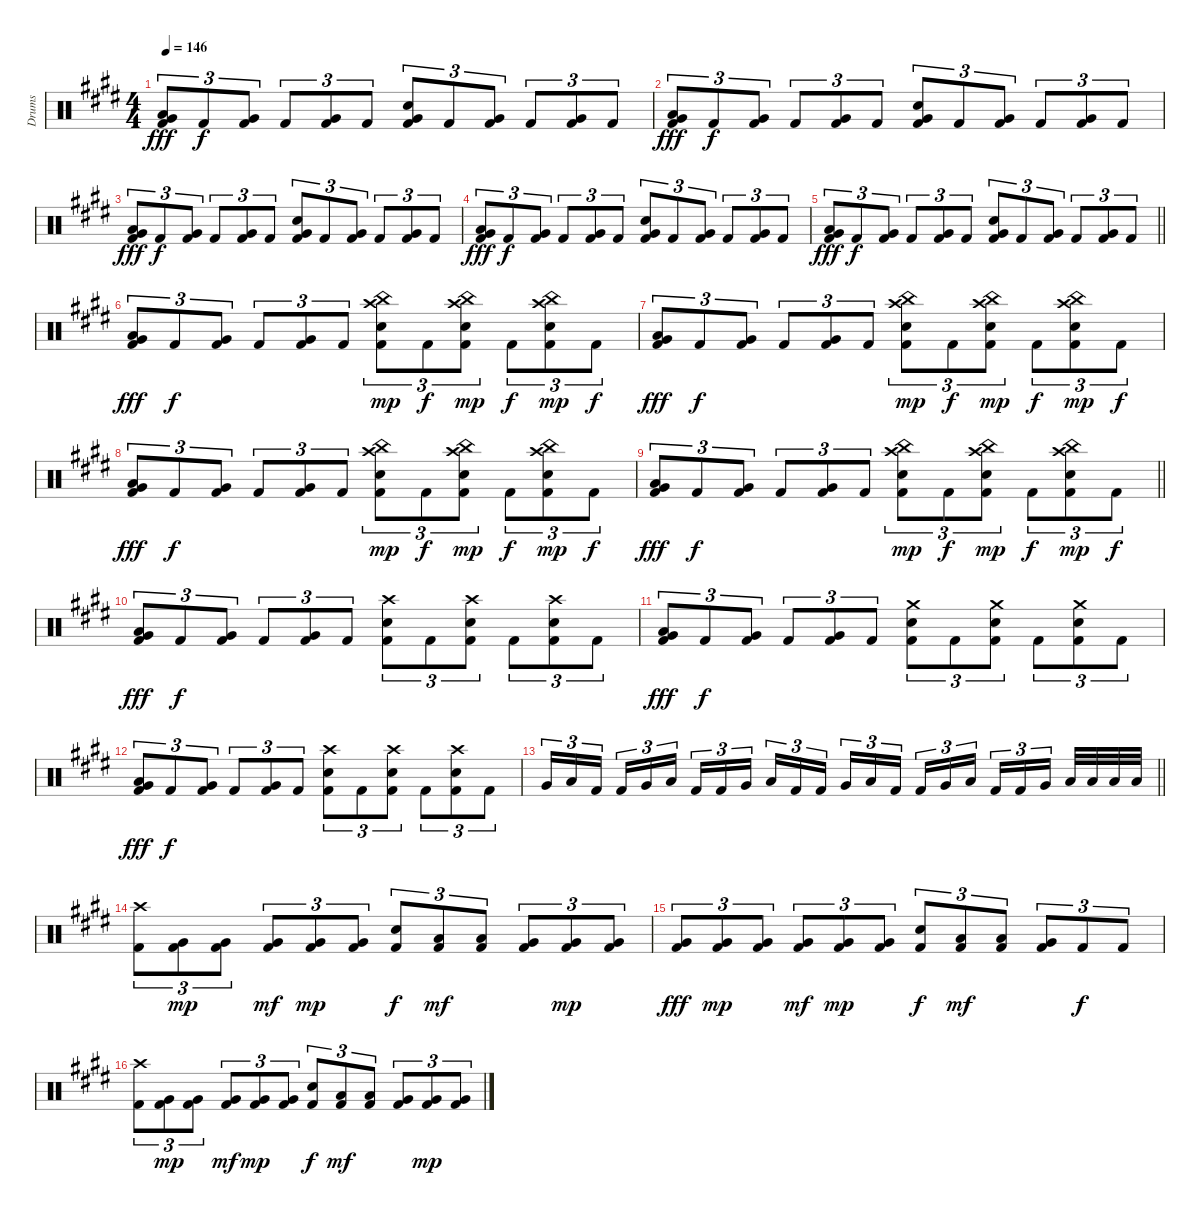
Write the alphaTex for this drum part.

\track ("Drums" "Drums") {instrument percussion}
\staff {score}
\articulation defaults
\ts (4 4)
\tempo 146
\clef neutral
\ks c#minor
("Low Tom (hit)" "Very Low Tom (hit)" "Kick (hit) 2").8{tu (3 2) dy fff} "Kick (hit) 2".8{tu (3 2) dy f} ("Very Low Tom (hit)" "Kick (hit) 2").8{tu (3 2)} "Kick (hit) 2".8{tu (3 2)} ("Very Low Tom (hit)" "Kick (hit) 2").8{tu (3 2)} "Kick (hit) 2".8{tu (3 2)} ("Snare (hit) 2" "Very Low Tom (hit)" "Kick (hit) 2").8{tu (3 2)} "Kick (hit) 2".8{tu (3 2)} ("Very Low Tom (hit)" "Kick (hit) 2").8{tu (3 2)} "Kick (hit) 2".8{tu (3 2)} ("Very Low Tom (hit)" "Kick (hit) 2").8{tu (3 2)} "Kick (hit) 2".8{tu (3 2)} |
("Low Tom (hit)" "Very Low Tom (hit)" "Kick (hit) 2").8{tu (3 2) dy fff} "Kick (hit) 2".8{tu (3 2) dy f} ("Very Low Tom (hit)" "Kick (hit) 2").8{tu (3 2)} "Kick (hit) 2".8{tu (3 2)} ("Very Low Tom (hit)" "Kick (hit) 2").8{tu (3 2)} "Kick (hit) 2".8{tu (3 2)} ("Snare (hit) 2" "Very Low Tom (hit)" "Kick (hit) 2").8{tu (3 2)} "Kick (hit) 2".8{tu (3 2)} ("Very Low Tom (hit)" "Kick (hit) 2").8{tu (3 2)} "Kick (hit) 2".8{tu (3 2)} ("Very Low Tom (hit)" "Kick (hit) 2").8{tu (3 2)} "Kick (hit) 2".8{tu (3 2)} |
("Low Tom (hit)" "Very Low Tom (hit)" "Kick (hit) 2").8{tu (3 2) dy fff} "Kick (hit) 2".8{tu (3 2) dy f} ("Very Low Tom (hit)" "Kick (hit) 2").8{tu (3 2)} "Kick (hit) 2".8{tu (3 2)} ("Very Low Tom (hit)" "Kick (hit) 2").8{tu (3 2)} "Kick (hit) 2".8{tu (3 2)} ("Snare (hit) 2" "Very Low Tom (hit)" "Kick (hit) 2").8{tu (3 2)} "Kick (hit) 2".8{tu (3 2)} ("Very Low Tom (hit)" "Kick (hit) 2").8{tu (3 2)} "Kick (hit) 2".8{tu (3 2)} ("Very Low Tom (hit)" "Kick (hit) 2").8{tu (3 2)} "Kick (hit) 2".8{tu (3 2)} |
("Low Tom (hit)" "Very Low Tom (hit)" "Kick (hit) 2").8{tu (3 2) dy fff} "Kick (hit) 2".8{tu (3 2) dy f} ("Very Low Tom (hit)" "Kick (hit) 2").8{tu (3 2)} "Kick (hit) 2".8{tu (3 2)} ("Very Low Tom (hit)" "Kick (hit) 2").8{tu (3 2)} "Kick (hit) 2".8{tu (3 2)} ("Snare (hit) 2" "Very Low Tom (hit)" "Kick (hit) 2").8{tu (3 2)} "Kick (hit) 2".8{tu (3 2)} ("Very Low Tom (hit)" "Kick (hit) 2").8{tu (3 2)} "Kick (hit) 2".8{tu (3 2)} ("Very Low Tom (hit)" "Kick (hit) 2").8{tu (3 2)} "Kick (hit) 2".8{tu (3 2)} |
\barLineRight lightlight
("Low Tom (hit)" "Very Low Tom (hit)" "Kick (hit) 2").8{tu (3 2) dy fff} "Kick (hit) 2".8{tu (3 2) dy f} ("Very Low Tom (hit)" "Kick (hit) 2").8{tu (3 2)} "Kick (hit) 2".8{tu (3 2)} ("Very Low Tom (hit)" "Kick (hit) 2").8{tu (3 2)} "Kick (hit) 2".8{tu (3 2)} ("Snare (hit) 2" "Very Low Tom (hit)" "Kick (hit) 2").8{tu (3 2)} "Kick (hit) 2".8{tu (3 2)} ("Very Low Tom (hit)" "Kick (hit) 2").8{tu (3 2)} "Kick (hit) 2".8{tu (3 2)} ("Very Low Tom (hit)" "Kick (hit) 2").8{tu (3 2)} "Kick (hit) 2".8{tu (3 2)} |
("Low Tom (hit)" "Very Low Tom (hit)" "Kick (hit) 2").8{tu (3 2) dy fff} "Kick (hit) 2".8{tu (3 2) dy f} ("Very Low Tom (hit)" "Kick (hit) 2").8{tu (3 2)} "Kick (hit) 2".8{tu (3 2)} ("Very Low Tom (hit)" "Kick (hit) 2").8{tu (3 2)} "Kick (hit) 2".8{tu (3 2)} ("China (hit)" "Crash high (hit)" "Snare (hit) 2" "Kick (hit) 2").8{tu (3 2) dy mp} "Kick (hit) 2".8{tu (3 2) dy f} ("China (hit)" "Crash high (hit)" "Snare (hit) 2" "Kick (hit) 2").8{tu (3 2) dy mp} "Kick (hit) 2".8{tu (3 2) dy f} ("China (hit)" "Crash high (hit)" "Snare (hit) 2" "Kick (hit) 2").8{tu (3 2) dy mp} "Kick (hit) 2".8{tu (3 2) dy f} |
("Low Tom (hit)" "Very Low Tom (hit)" "Kick (hit) 2").8{tu (3 2) dy fff} "Kick (hit) 2".8{tu (3 2) dy f} ("Very Low Tom (hit)" "Kick (hit) 2").8{tu (3 2)} "Kick (hit) 2".8{tu (3 2)} ("Very Low Tom (hit)" "Kick (hit) 2").8{tu (3 2)} "Kick (hit) 2".8{tu (3 2)} ("China (hit)" "Crash high (hit)" "Snare (hit) 2" "Kick (hit) 2").8{tu (3 2) dy mp} "Kick (hit) 2".8{tu (3 2) dy f} ("China (hit)" "Crash high (hit)" "Snare (hit) 2" "Kick (hit) 2").8{tu (3 2) dy mp} "Kick (hit) 2".8{tu (3 2) dy f} ("China (hit)" "Crash high (hit)" "Snare (hit) 2" "Kick (hit) 2").8{tu (3 2) dy mp} "Kick (hit) 2".8{tu (3 2) dy f} |
("Low Tom (hit)" "Very Low Tom (hit)" "Kick (hit) 2").8{tu (3 2) dy fff} "Kick (hit) 2".8{tu (3 2) dy f} ("Very Low Tom (hit)" "Kick (hit) 2").8{tu (3 2)} "Kick (hit) 2".8{tu (3 2)} ("Very Low Tom (hit)" "Kick (hit) 2").8{tu (3 2)} "Kick (hit) 2".8{tu (3 2)} ("China (hit)" "Crash high (hit)" "Snare (hit) 2" "Kick (hit) 2").8{tu (3 2) dy mp} "Kick (hit) 2".8{tu (3 2) dy f} ("China (hit)" "Crash high (hit)" "Snare (hit) 2" "Kick (hit) 2").8{tu (3 2) dy mp} "Kick (hit) 2".8{tu (3 2) dy f} ("China (hit)" "Crash high (hit)" "Snare (hit) 2" "Kick (hit) 2").8{tu (3 2) dy mp} "Kick (hit) 2".8{tu (3 2) dy f} |
\barLineRight lightlight
("Low Tom (hit)" "Very Low Tom (hit)" "Kick (hit) 2").8{tu (3 2) dy fff} "Kick (hit) 2".8{tu (3 2) dy f} ("Very Low Tom (hit)" "Kick (hit) 2").8{tu (3 2)} "Kick (hit) 2".8{tu (3 2)} ("Very Low Tom (hit)" "Kick (hit) 2").8{tu (3 2)} "Kick (hit) 2".8{tu (3 2)} ("China (hit)" "Crash high (hit)" "Snare (hit) 2" "Kick (hit) 2").8{tu (3 2) dy mp} "Kick (hit) 2".8{tu (3 2) dy f} ("China (hit)" "Crash high (hit)" "Snare (hit) 2" "Kick (hit) 2").8{tu (3 2) dy mp} "Kick (hit) 2".8{tu (3 2) dy f} ("China (hit)" "Crash high (hit)" "Snare (hit) 2" "Kick (hit) 2").8{tu (3 2) dy mp} "Kick (hit) 2".8{tu (3 2) dy f} |
("Low Tom (hit)" "Very Low Tom (hit)" "Kick (hit) 2").8{tu (3 2) dy fff} "Kick (hit) 2".8{tu (3 2) dy f} ("Very Low Tom (hit)" "Kick (hit) 2").8{tu (3 2)} "Kick (hit) 2".8{tu (3 2)} ("Very Low Tom (hit)" "Kick (hit) 2").8{tu (3 2)} "Kick (hit) 2".8{tu (3 2)} ("Crash high (hit)" "Snare (hit) 2" "Kick (hit) 2").8{tu (3 2)} "Kick (hit) 2".8{tu (3 2)} ("Crash high (hit)" "Snare (hit) 2" "Kick (hit) 2").8{tu (3 2)} "Kick (hit) 2".8{tu (3 2)} ("Crash high (hit)" "Snare (hit) 2" "Kick (hit) 2").8{tu (3 2)} "Kick (hit) 2".8{tu (3 2)} |
("Low Tom (hit)" "Very Low Tom (hit)" "Kick (hit) 2").8{tu (3 2) dy fff} "Kick (hit) 2".8{tu (3 2) dy f} ("Very Low Tom (hit)" "Kick (hit) 2").8{tu (3 2)} "Kick (hit) 2".8{tu (3 2)} ("Very Low Tom (hit)" "Kick (hit) 2").8{tu (3 2)} "Kick (hit) 2".8{tu (3 2)} ("Crash medium (hit)" "Snare (hit) 2" "Kick (hit) 2").8{tu (3 2)} "Kick (hit) 2".8{tu (3 2)} ("Crash medium (hit)" "Snare (hit) 2" "Kick (hit) 2").8{tu (3 2)} "Kick (hit) 2".8{tu (3 2)} ("Crash medium (hit)" "Snare (hit) 2" "Kick (hit) 2").8{tu (3 2)} "Kick (hit) 2".8{tu (3 2)} |
("Low Tom (hit)" "Very Low Tom (hit)" "Kick (hit) 2").8{tu (3 2) dy fff} "Kick (hit) 2".8{tu (3 2) dy f} ("Very Low Tom (hit)" "Kick (hit) 2").8{tu (3 2)} "Kick (hit) 2".8{tu (3 2)} ("Very Low Tom (hit)" "Kick (hit) 2").8{tu (3 2)} "Kick (hit) 2".8{tu (3 2)} ("Crash high (hit)" "Snare (hit) 2" "Kick (hit) 2").8{tu (3 2)} "Kick (hit) 2".8{tu (3 2)} ("Crash high (hit)" "Snare (hit) 2" "Kick (hit) 2").8{tu (3 2)} "Kick (hit) 2".8{tu (3 2)} ("Crash high (hit)" "Snare (hit) 2" "Kick (hit) 2").8{tu (3 2)} "Kick (hit) 2".8{tu (3 2)} |
\barLineRight lightlight "Very Low Tom (hit)".16{tu (3 2)} "Low Tom (hit)".16{tu (3 2)} "Kick (hit) 2".16{tu (3 2)} "Kick (hit) 2".16{tu (3 2)} "Very Low Tom (hit)".16{tu (3 2)} "Low Tom (hit)".16{tu (3 2)} "Kick (hit) 2".16{tu (3 2)} "Kick (hit) 2".16{tu (3 2)} "Very Low Tom (hit)".16{tu (3 2)} "Low Tom (hit)".16{tu (3 2)} "Kick (hit) 2".16{tu (3 2)} "Kick (hit) 2".16{tu (3 2)} "Very Low Tom (hit)".16{tu (3 2)} "Low Tom (hit)".16{tu (3 2)} "Kick (hit) 2".16{tu (3 2)} "Kick (hit) 2".16{tu (3 2)} "Very Low Tom (hit)".16{tu (3 2)} "Low Tom (hit)".16{tu (3 2)} "Kick (hit) 2".16{tu (3 2)} "Kick (hit) 2".16{tu (3 2)} "Very Low Tom (hit)".16{tu (3 2)} "Low Tom (hit)".32 "Low Tom (hit)".32 "Low Tom (hit)".32 "Low Tom (hit)".32
|
("Crash high (hit)" "Kick (hit) 2").8{tu (3 2)} ("Very Low Tom (hit)" "Kick (hit) 2").8{tu (3 2) dy mp} ("Very Low Tom (hit)" "Kick (hit) 2").8{tu (3 2)} ("Very Low Tom (hit)" "Kick (hit) 2").8{tu (3 2) dy mf} ("Very Low Tom (hit)" "Kick (hit) 2").8{tu (3 2) dy mp} ("Very Low Tom (hit)" "Kick (hit) 2").8{tu (3 2)} ("Snare (hit) 2" "Kick (hit) 2").8{tu (3 2) dy f} ("Low Tom (hit)" "Kick (hit) 2").8{tu (3 2) dy mf} ("Low Tom (hit)" "Kick (hit) 2").8{tu (3 2)} ("Very Low Tom (hit)" "Kick (hit) 2").8{tu (3 2)} ("Very Low Tom (hit)" "Kick (hit) 2").8{tu (3 2) dy mp} ("Very Low Tom (hit)" "Kick (hit) 2").8{tu (3 2)} |
("Very Low Tom (hit)" "Kick (hit) 2").8{tu (3 2) dy fff} ("Very Low Tom (hit)" "Kick (hit) 2").8{tu (3 2) dy mp} ("Very Low Tom (hit)" "Kick (hit) 2").8{tu (3 2)} ("Very Low Tom (hit)" "Kick (hit) 2").8{tu (3 2) dy mf} ("Very Low Tom (hit)" "Kick (hit) 2").8{tu (3 2) dy mp} ("Very Low Tom (hit)" "Kick (hit) 2").8{tu (3 2)} ("Snare (hit) 2" "Kick (hit) 2").8{tu (3 2) dy f} ("Low Tom (hit)" "Kick (hit) 2").8{tu (3 2) dy mf} ("Low Tom (hit)" "Kick (hit) 2").8{tu (3 2)} ("Very Low Tom (hit)" "Kick (hit) 2").8{tu (3 2)} "Kick (hit) 2".8{tu (3 2) dy f} "Kick (hit) 2".8{tu (3 2)} |
("Crash high (hit)" "Kick (hit) 2").8{tu (3 2)} ("Very Low Tom (hit)" "Kick (hit) 2").8{tu (3 2) dy mp} ("Very Low Tom (hit)" "Kick (hit) 2").8{tu (3 2)} ("Very Low Tom (hit)" "Kick (hit) 2").8{tu (3 2) dy mf} ("Very Low Tom (hit)" "Kick (hit) 2").8{tu (3 2) dy mp} ("Very Low Tom (hit)" "Kick (hit) 2").8{tu (3 2)} ("Snare (hit) 2" "Kick (hit) 2").8{tu (3 2) dy f} ("Low Tom (hit)" "Kick (hit) 2").8{tu (3 2) dy mf} ("Low Tom (hit)" "Kick (hit) 2").8{tu (3 2)} ("Very Low Tom (hit)" "Kick (hit) 2").8{tu (3 2)} ("Very Low Tom (hit)" "Kick (hit) 2").8{tu (3 2) dy mp} ("Very Low Tom (hit)" "Kick (hit) 2").8{tu (3 2)}
